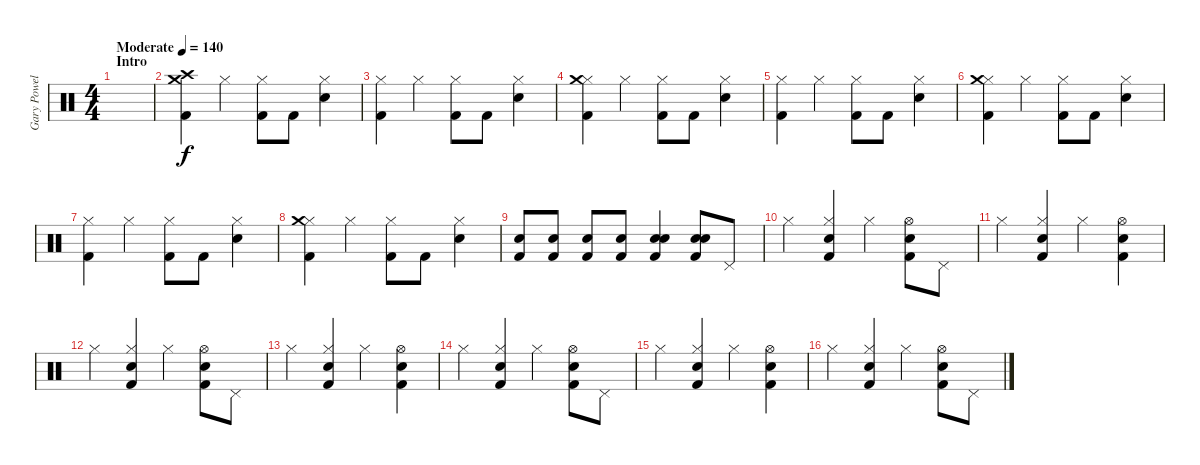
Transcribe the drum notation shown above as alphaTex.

\track ("Gary Powell (Drums)" "Gary Powel") {instrument percussion}
\staff {score}
\articulation defaults
\ts (4 4)
\section ("" "Intro")
\tempo (140 "Moderate")
\clef neutral
\ks c
|
("Kick (hit) 2" "Crash high (hit)" "Crash medium (hit)").4 "Hi-Hat (closed)".4 ("Kick (hit) 2" "Hi-Hat (closed)").8 "Kick (hit) 2".8 ("Hi-Hat (closed)" "Snare (hit) 2").4 |
("Kick (hit) 2" "Hi-Hat (closed)").4 "Hi-Hat (closed)".4 ("Kick (hit) 2" "Hi-Hat (closed)").8 "Kick (hit) 2".8 ("Hi-Hat (closed)" "Snare (hit) 2").4 |
("Kick (hit) 2" "Hi-Hat (closed)" "Crash medium (hit)").4 "Hi-Hat (closed)".4 ("Kick (hit) 2" "Hi-Hat (closed)").8 "Kick (hit) 2".8 ("Hi-Hat (closed)" "Snare (hit) 2").4 |
("Kick (hit) 2" "Hi-Hat (closed)").4 "Hi-Hat (closed)".4 ("Kick (hit) 2" "Hi-Hat (closed)").8 "Kick (hit) 2".8 ("Hi-Hat (closed)" "Snare (hit) 2").4 |
("Kick (hit) 2" "Hi-Hat (closed)" "Crash medium (hit)").4 "Hi-Hat (closed)".4 ("Kick (hit) 2" "Hi-Hat (closed)").8 "Kick (hit) 2".8 ("Hi-Hat (closed)" "Snare (hit) 2").4 |
("Kick (hit) 2" "Hi-Hat (closed)").4 "Hi-Hat (closed)".4 ("Kick (hit) 2" "Hi-Hat (closed)").8 "Kick (hit) 2".8 ("Hi-Hat (closed)" "Snare (hit) 2").4 |
("Kick (hit) 2" "Hi-Hat (closed)" "Crash medium (hit)").4 "Hi-Hat (closed)".4 ("Kick (hit) 2" "Hi-Hat (closed)").8 "Kick (hit) 2".8 ("Hi-Hat (closed)" "Snare (hit) 2").4 |
("Kick (hit) 2" "Snare (hit) 2").8 ("Kick (hit) 2" "Snare (hit) 2").8 ("Kick (hit) 2" "Snare (hit) 2").8 ("Kick (hit) 2" "Snare (hit) 2").8 ("Kick (hit) 2" "Snare (hit) 2" "Snare (hit) 2").4 ("Kick (hit) 2" "Snare (hit) 2" "Snare (hit) 2").8 "Pedal Hi-Hat (hit)".8 |
"Hi-Hat (closed)".4 ("Kick (hit) 2" "Hi-Hat (closed)" "Snare (hit) 2").4 "Hi-Hat (closed)".4 ("Kick (hit) 2" "Hi-Hat (open)" "Snare (hit) 2").8 "Pedal Hi-Hat (hit)".8 |
"Hi-Hat (closed)".4 ("Kick (hit) 2" "Hi-Hat (closed)" "Snare (hit) 2").4 "Hi-Hat (closed)".4 ("Kick (hit) 2" "Hi-Hat (open)" "Snare (hit) 2").4 |
"Hi-Hat (closed)".4 ("Kick (hit) 2" "Hi-Hat (closed)" "Snare (hit) 2").4 "Hi-Hat (closed)".4 ("Kick (hit) 2" "Hi-Hat (open)" "Snare (hit) 2").8 "Pedal Hi-Hat (hit)".8 |
"Hi-Hat (closed)".4 ("Kick (hit) 2" "Hi-Hat (closed)" "Snare (hit) 2").4 "Hi-Hat (closed)".4 ("Kick (hit) 2" "Hi-Hat (open)" "Snare (hit) 2").4 |
"Hi-Hat (closed)".4 ("Kick (hit) 2" "Hi-Hat (closed)" "Snare (hit) 2").4 "Hi-Hat (closed)".4 ("Kick (hit) 2" "Hi-Hat (open)" "Snare (hit) 2").8 "Pedal Hi-Hat (hit)".8 |
"Hi-Hat (closed)".4 ("Kick (hit) 2" "Hi-Hat (closed)" "Snare (hit) 2").4 "Hi-Hat (closed)".4 ("Kick (hit) 2" "Hi-Hat (open)" "Snare (hit) 2").4 |
"Hi-Hat (closed)".4 ("Kick (hit) 2" "Hi-Hat (closed)" "Snare (hit) 2").4 "Hi-Hat (closed)".4 ("Kick (hit) 2" "Hi-Hat (open)" "Snare (hit) 2").8 "Pedal Hi-Hat (hit)".8
